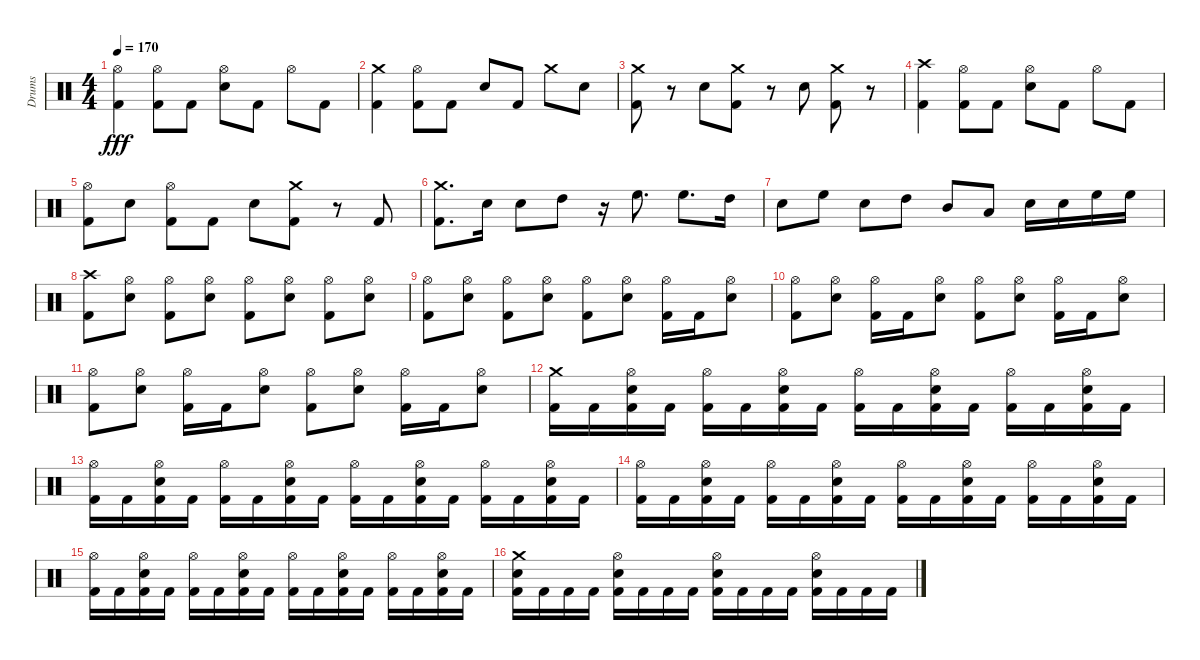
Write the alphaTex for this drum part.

\track ("Drums" "Drums") {instrument percussion}
\staff {score}
\articulation defaults
\ts (4 4)
\tempo 170
\clef neutral
\ks c
("Hi-Hat (open)" "Kick (hit) 2").4{dy fff} ("Kick (hit) 2" "Hi-Hat (open)").8 "Kick (hit) 2".8 ("Snare (hit) 2" "Hi-Hat (open)").8 "Kick (hit) 2".8 "Hi-Hat (open)".8 "Kick (hit) 2".8 |
("Kick (hit) 2" "Crash medium (hit)").4 ("Kick (hit) 2" "Hi-Hat (open)").8 "Kick (hit) 2".8 "Snare (hit) 2".8 "Kick (hit) 2".8 "Crash medium (hit)".8 "Snare (hit) 2".8 |
("Kick (hit) 2" "Crash medium (hit)").8 r.8 "Snare (hit) 2".8 ("Kick (hit) 2" "Crash medium (hit)").8 r.8 "Snare (hit) 2".8 ("Kick (hit) 2" "Crash medium (hit)").8 r.8 |
("Kick (hit) 2" "Crash high (hit)").4 ("Kick (hit) 2" "Hi-Hat (open)").8 "Kick (hit) 2".8 ("Snare (hit) 2" "Hi-Hat (open)").8 "Kick (hit) 2".8 "Hi-Hat (open)".8 "Kick (hit) 2".8 |
("Kick (hit) 2" "Hi-Hat (open)").8 "Snare (hit) 2".8 ("Hi-Hat (open)" "Kick (hit) 2").8 "Kick (hit) 2".8 "Snare (hit) 2".8 ("Crash medium (hit)" "Kick (hit) 2").8 r.8 "Kick (hit) 2".8 |
("Kick (hit) 2" "Crash medium (hit)").8{d} "Snare (hit) 2".16 "Snare (hit) 2".8 "High Tom (hit)".8 r.16 "High Floor Tom (hit)".8{d} "High Floor Tom (hit)".8{d} "High Tom (hit)".16 |
"Snare (hit) 2".8 "High Floor Tom (hit)".8 "Snare (hit) 2".8 "High Tom (hit)".8 "Mid Tom (hit)".8 "Low Tom (hit)".8 "Snare (hit) 2".16 "Snare (hit) 2".16 "High Floor Tom (hit)".16 "High Floor Tom (hit)".16 |
("Kick (hit) 2" "Crash high (hit)").8 ("Snare (hit) 2" "Hi-Hat (open)").8 ("Kick (hit) 2" "Hi-Hat (open)").8 ("Snare (hit) 2" "Hi-Hat (open)").8 ("Kick (hit) 2" "Hi-Hat (open)").8 ("Snare (hit) 2" "Hi-Hat (open)").8 ("Kick (hit) 2" "Hi-Hat (open)").8 ("Snare (hit) 2" "Hi-Hat (open)").8 |
("Hi-Hat (open)" "Kick (hit) 2").8 ("Snare (hit) 2" "Hi-Hat (open)").8 ("Kick (hit) 2" "Hi-Hat (open)").8 ("Snare (hit) 2" "Hi-Hat (open)").8 ("Kick (hit) 2" "Hi-Hat (open)").8 ("Snare (hit) 2" "Hi-Hat (open)").8 ("Kick (hit) 2" "Hi-Hat (open)").16 "Kick (hit) 2".16 ("Snare (hit) 2" "Hi-Hat (open)").8 |
("Hi-Hat (open)" "Kick (hit) 2").8 ("Snare (hit) 2" "Hi-Hat (open)").8 ("Kick (hit) 2" "Hi-Hat (open)").16 "Kick (hit) 2".16 ("Snare (hit) 2" "Hi-Hat (open)").8 ("Kick (hit) 2" "Hi-Hat (open)").8 ("Snare (hit) 2" "Hi-Hat (open)").8 ("Kick (hit) 2" "Hi-Hat (open)").16 "Kick (hit) 2".16 ("Snare (hit) 2" "Hi-Hat (open)").8 |
("Hi-Hat (open)" "Kick (hit) 2").8 ("Snare (hit) 2" "Hi-Hat (open)").8 ("Kick (hit) 2" "Hi-Hat (open)").16 "Kick (hit) 2".16 ("Snare (hit) 2" "Hi-Hat (open)").8 ("Kick (hit) 2" "Hi-Hat (open)").8 ("Snare (hit) 2" "Hi-Hat (open)").8 ("Kick (hit) 2" "Hi-Hat (open)").16 "Kick (hit) 2".16 ("Snare (hit) 2" "Hi-Hat (open)").8 |
("Kick (hit) 2" "Crash medium (hit)").16 "Kick (hit) 2".16 ("Kick (hit) 2" "Snare (hit) 2" "Hi-Hat (open)").16 "Kick (hit) 2".16 ("Kick (hit) 2" "Hi-Hat (open)").16 "Kick (hit) 2".16 ("Kick (hit) 2" "Snare (hit) 2" "Hi-Hat (open)").16 "Kick (hit) 2".16 ("Kick (hit) 2" "Hi-Hat (open)").16 "Kick (hit) 2".16 ("Kick (hit) 2" "Snare (hit) 2" "Hi-Hat (open)").16 "Kick (hit) 2".16 ("Kick (hit) 2" "Hi-Hat (open)").16 "Kick (hit) 2".16 ("Kick (hit) 2" "Snare (hit) 2" "Hi-Hat (open)").16 "Kick (hit) 2".16 |
("Hi-Hat (open)" "Kick (hit) 2").16 "Kick (hit) 2".16 ("Kick (hit) 2" "Snare (hit) 2" "Hi-Hat (open)").16 "Kick (hit) 2".16 ("Kick (hit) 2" "Hi-Hat (open)").16 "Kick (hit) 2".16 ("Kick (hit) 2" "Snare (hit) 2" "Hi-Hat (open)").16 "Kick (hit) 2".16 ("Kick (hit) 2" "Hi-Hat (open)").16 "Kick (hit) 2".16 ("Kick (hit) 2" "Snare (hit) 2" "Hi-Hat (open)").16 "Kick (hit) 2".16 ("Kick (hit) 2" "Hi-Hat (open)").16 "Kick (hit) 2".16 ("Kick (hit) 2" "Snare (hit) 2" "Hi-Hat (open)").16 "Kick (hit) 2".16 |
("Hi-Hat (open)" "Kick (hit) 2").16 "Kick (hit) 2".16 ("Kick (hit) 2" "Snare (hit) 2" "Hi-Hat (open)").16 "Kick (hit) 2".16 ("Kick (hit) 2" "Hi-Hat (open)").16 "Kick (hit) 2".16 ("Kick (hit) 2" "Snare (hit) 2" "Hi-Hat (open)").16 "Kick (hit) 2".16 ("Kick (hit) 2" "Hi-Hat (open)").16 "Kick (hit) 2".16 ("Kick (hit) 2" "Snare (hit) 2" "Hi-Hat (open)").16 "Kick (hit) 2".16 ("Kick (hit) 2" "Hi-Hat (open)").16 "Kick (hit) 2".16 ("Kick (hit) 2" "Snare (hit) 2" "Hi-Hat (open)").16 "Kick (hit) 2".16 |
("Hi-Hat (open)" "Kick (hit) 2").16 "Kick (hit) 2".16 ("Kick (hit) 2" "Snare (hit) 2" "Hi-Hat (open)").16 "Kick (hit) 2".16 ("Kick (hit) 2" "Hi-Hat (open)").16 "Kick (hit) 2".16 ("Kick (hit) 2" "Snare (hit) 2" "Hi-Hat (open)").16 "Kick (hit) 2".16 ("Kick (hit) 2" "Hi-Hat (open)").16 "Kick (hit) 2".16 ("Kick (hit) 2" "Snare (hit) 2" "Hi-Hat (open)").16 "Kick (hit) 2".16 ("Kick (hit) 2" "Hi-Hat (open)").16 "Kick (hit) 2".16 ("Kick (hit) 2" "Snare (hit) 2" "Hi-Hat (open)").16 "Kick (hit) 2".16 |
("Snare (hit) 2" "Crash medium (hit)" "Kick (hit) 2").16 "Kick (hit) 2".16 "Kick (hit) 2".16 "Kick (hit) 2".16 ("Snare (hit) 2" "Hi-Hat (open)" "Kick (hit) 2").16 "Kick (hit) 2".16 "Kick (hit) 2".16 "Kick (hit) 2".16 ("Snare (hit) 2" "Hi-Hat (open)" "Kick (hit) 2").16 "Kick (hit) 2".16 "Kick (hit) 2".16 "Kick (hit) 2".16 ("Snare (hit) 2" "Hi-Hat (open)" "Kick (hit) 2").16 "Kick (hit) 2".16 "Kick (hit) 2".16 "Kick (hit) 2".16
